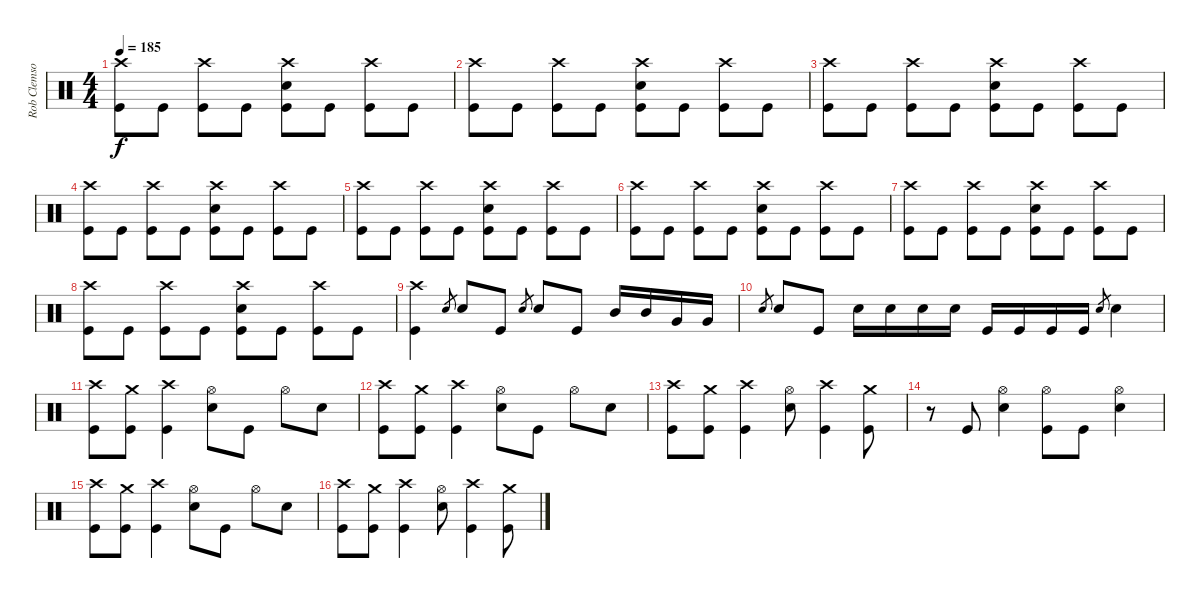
\track ("Rob Clemson (Drums)" "Rob Clemso") {instrument percussion}
\staff {score}
\articulation defaults
\ts (4 4)
\tempo 185
\clef neutral
\ks c
("Crash high (hit)" "Kick (hit)").8{dy f} "Kick (hit)".8 ("Crash high (hit)" "Kick (hit)").8 "Kick (hit)".8 ("Crash high (hit)" "Kick (hit)" "Electric Snare (hit)").8 "Kick (hit)".8 ("Crash high (hit)" "Kick (hit)").8 "Kick (hit)".8 |
("Crash high (hit)" "Kick (hit)").8 "Kick (hit)".8 ("Crash high (hit)" "Kick (hit)").8 "Kick (hit)".8 ("Crash high (hit)" "Kick (hit)" "Electric Snare (hit)").8 "Kick (hit)".8 ("Crash high (hit)" "Kick (hit)").8 "Kick (hit)".8 |
("Crash high (hit)" "Kick (hit)").8 "Kick (hit)".8 ("Crash high (hit)" "Kick (hit)").8 "Kick (hit)".8 ("Crash high (hit)" "Kick (hit)" "Electric Snare (hit)").8 "Kick (hit)".8 ("Crash high (hit)" "Kick (hit)").8 "Kick (hit)".8 |
("Crash high (hit)" "Kick (hit)").8 "Kick (hit)".8 ("Crash high (hit)" "Kick (hit)").8 "Kick (hit)".8 ("Crash high (hit)" "Kick (hit)" "Electric Snare (hit)").8 "Kick (hit)".8 ("Crash high (hit)" "Kick (hit)").8 "Kick (hit)".8 |
("Crash high (hit)" "Kick (hit)").8 "Kick (hit)".8 ("Crash high (hit)" "Kick (hit)").8 "Kick (hit)".8 ("Crash high (hit)" "Kick (hit)" "Electric Snare (hit)").8 "Kick (hit)".8 ("Crash high (hit)" "Kick (hit)").8 "Kick (hit)".8 |
("Crash high (hit)" "Kick (hit)").8 "Kick (hit)".8 ("Crash high (hit)" "Kick (hit)").8 "Kick (hit)".8 ("Crash high (hit)" "Kick (hit)" "Electric Snare (hit)").8 "Kick (hit)".8 ("Crash high (hit)" "Kick (hit)").8 "Kick (hit)".8 |
("Crash high (hit)" "Kick (hit)").8 "Kick (hit)".8 ("Crash high (hit)" "Kick (hit)").8 "Kick (hit)".8 ("Crash high (hit)" "Kick (hit)" "Electric Snare (hit)").8 "Kick (hit)".8 ("Crash high (hit)" "Kick (hit)").8 "Kick (hit)".8 |
("Crash high (hit)" "Kick (hit)").8 "Kick (hit)".8 ("Crash high (hit)" "Kick (hit)").8 "Kick (hit)".8 ("Crash high (hit)" "Kick (hit)" "Electric Snare (hit)").8 "Kick (hit)".8 ("Crash high (hit)" "Kick (hit)").8 "Kick (hit)".8 |
("Kick (hit)" "Crash high (hit)").4 "Electric Snare (hit)".8{gr} "Electric Snare (hit)".8 "Kick (hit)".8 "Electric Snare (hit)".8{gr} "Electric Snare (hit)".8 "Kick (hit)".8 "Mid Tom (hit)".16 "Mid Tom (hit)".16 "Very Low Tom (hit)".16 "Very Low Tom (hit)".16 |
"Electric Snare (hit)".8{gr} "Electric Snare (hit)".8 "Kick (hit)".8 "Electric Snare (hit)".16 "Electric Snare (hit)".16 "Electric Snare (hit)".16 "Electric Snare (hit)".16 "Kick (hit)".16 "Kick (hit)".16 "Kick (hit)".16 "Kick (hit)".16 "Electric Snare (hit)".8{gr} "Electric Snare (hit)".4 |
("Kick (hit)" "Crash high (hit)").8 ("Crash medium (hit)" "Kick (hit)").8 ("Crash high (hit)" "Kick (hit)").4 ("Electric Snare (hit)" "Hi-Hat (open)").8 "Kick (hit)".8 "Hi-Hat (open)".8 "Electric Snare (hit)".8 |
("Kick (hit)" "Crash high (hit)").8 ("Crash medium (hit)" "Kick (hit)").8 ("Crash high (hit)" "Kick (hit)").4 ("Electric Snare (hit)" "Hi-Hat (open)").8 "Kick (hit)".8 "Hi-Hat (open)".8 "Electric Snare (hit)".8 |
("Kick (hit)" "Crash high (hit)").8 ("Crash medium (hit)" "Kick (hit)").8 ("Crash high (hit)" "Kick (hit)").4 ("Electric Snare (hit)" "Hi-Hat (open)").8 ("Kick (hit)" "Crash high (hit)").4 ("Kick (hit)" "Crash medium (hit)").8 |
r.8 "Kick (hit)".8 ("Electric Snare (hit)" "Hi-Hat (open)").4 ("Hi-Hat (open)" "Kick (hit)").8 "Kick (hit)".8 ("Hi-Hat (open)" "Electric Snare (hit)").4 |
("Kick (hit)" "Crash high (hit)").8 ("Crash medium (hit)" "Kick (hit)").8 ("Crash high (hit)" "Kick (hit)").4 ("Electric Snare (hit)" "Hi-Hat (open)").8 "Kick (hit)".8 "Hi-Hat (open)".8 "Electric Snare (hit)".8 |
("Kick (hit)" "Crash high (hit)").8 ("Crash medium (hit)" "Kick (hit)").8 ("Crash high (hit)" "Kick (hit)").4 ("Electric Snare (hit)" "Hi-Hat (open)").8 ("Kick (hit)" "Crash high (hit)").4 ("Kick (hit)" "Crash medium (hit)").8
